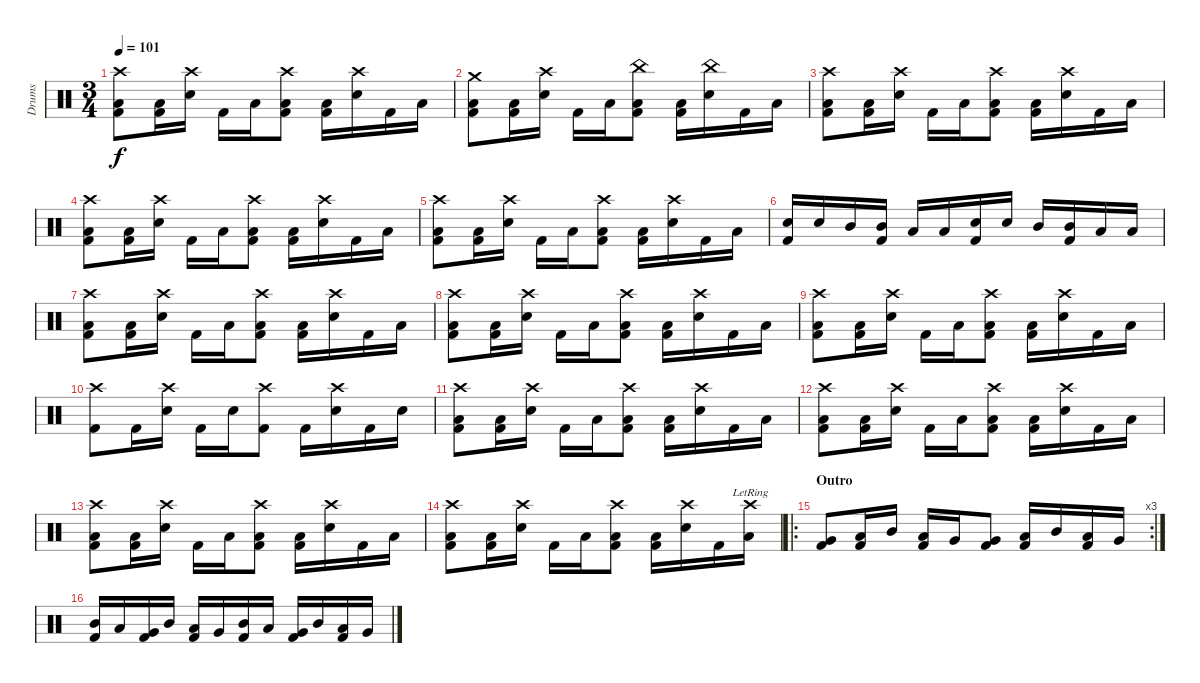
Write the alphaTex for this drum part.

\track ("Drums" "Drums") {instrument percussion}
\staff {score}
\articulation defaults
\ts (3 4)
\tempo 101
\clef neutral
\ks c
("Crash high (hit)" "Low Tom (hit)" "Kick (hit) 2").8{dy f} ("Low Tom (hit)" "Kick (hit) 2").16 ("Crash high (hit)" "Electric Snare (hit)").16 "Kick (hit) 2".16 "Low Tom (hit)".16 ("Crash high (hit)" "Low Tom (hit)" "Kick (hit) 2").8 ("Low Tom (hit)" "Kick (hit) 2").16 ("Crash high (hit)" "Electric Snare (hit)").16 "Kick (hit) 2".16 "Low Tom (hit)".16 |
("Crash medium (hit)" "Low Tom (hit)" "Kick (hit) 2").8 ("Low Tom (hit)" "Kick (hit) 2").16 ("Crash high (hit)" "Electric Snare (hit)").16 "Kick (hit) 2".16 "Low Tom (hit)".16 ("China (hit)" "Low Tom (hit)" "Kick (hit) 2").8 ("Low Tom (hit)" "Kick (hit) 2").16 ("China (hit)" "Electric Snare (hit)").16 "Kick (hit) 2".16 "Low Tom (hit)".16 |
("Crash high (hit)" "Low Tom (hit)" "Kick (hit) 2").8 ("Low Tom (hit)" "Kick (hit) 2").16 ("Crash high (hit)" "Electric Snare (hit)").16 "Kick (hit) 2".16 "Low Tom (hit)".16 ("Crash high (hit)" "Low Tom (hit)" "Kick (hit) 2").8 ("Low Tom (hit)" "Kick (hit) 2").16 ("Crash high (hit)" "Electric Snare (hit)").16 "Kick (hit) 2".16 "Low Tom (hit)".16 |
("Crash high (hit)" "Low Tom (hit)" "Kick (hit) 2").8 ("Low Tom (hit)" "Kick (hit) 2").16 ("Crash high (hit)" "Electric Snare (hit)").16 "Kick (hit) 2".16 "Low Tom (hit)".16 ("Crash high (hit)" "Low Tom (hit)" "Kick (hit) 2").8 ("Low Tom (hit)" "Kick (hit) 2").16 ("Crash high (hit)" "Electric Snare (hit)").16 "Kick (hit) 2".16 "Low Tom (hit)".16 |
("Crash high (hit)" "Low Tom (hit)" "Kick (hit) 2").8 ("Low Tom (hit)" "Kick (hit) 2").16 ("Crash high (hit)" "Electric Snare (hit)").16 "Kick (hit) 2".16 "Low Tom (hit)".16 ("Crash high (hit)" "Low Tom (hit)" "Kick (hit) 2").8 ("Low Tom (hit)" "Kick (hit) 2").16 ("Crash high (hit)" "Electric Snare (hit)").16 "Kick (hit) 2".16 "Low Tom (hit)".16 |
("Electric Snare (hit)" "Kick (hit) 2").16 "Electric Snare (hit)".16 "Mid Tom (hit)".16 ("Mid Tom (hit)" "Kick (hit) 2").16 "Low Tom (hit)".16 "Low Tom (hit)".16 ("Electric Snare (hit)" "Kick (hit) 2").16 "Electric Snare (hit)".16 "Mid Tom (hit)".16 ("Mid Tom (hit)" "Kick (hit) 2").16 "Low Tom (hit)".16 "Low Tom (hit)".16 |
("Crash high (hit)" "Low Tom (hit)" "Kick (hit) 2").8 ("Low Tom (hit)" "Kick (hit) 2").16 ("Crash high (hit)" "Electric Snare (hit)").16 "Kick (hit) 2".16 "Low Tom (hit)".16 ("Crash high (hit)" "Low Tom (hit)" "Kick (hit) 2").8 ("Low Tom (hit)" "Kick (hit) 2").16 ("Crash high (hit)" "Electric Snare (hit)").16 "Kick (hit) 2".16 "Low Tom (hit)".16 |
("Crash high (hit)" "Low Tom (hit)" "Kick (hit) 2").8 ("Low Tom (hit)" "Kick (hit) 2").16 ("Crash high (hit)" "Electric Snare (hit)").16 "Kick (hit) 2".16 "Low Tom (hit)".16 ("Crash high (hit)" "Low Tom (hit)" "Kick (hit) 2").8 ("Low Tom (hit)" "Kick (hit) 2").16 ("Crash high (hit)" "Electric Snare (hit)").16 "Kick (hit) 2".16 "Low Tom (hit)".16 |
("Crash high (hit)" "Low Tom (hit)" "Kick (hit) 2").8 ("Low Tom (hit)" "Kick (hit) 2").16 ("Crash high (hit)" "Electric Snare (hit)").16 "Kick (hit) 2".16 "Low Tom (hit)".16 ("Crash high (hit)" "Low Tom (hit)" "Kick (hit) 2").8 ("Low Tom (hit)" "Kick (hit) 2").16 ("Crash high (hit)" "Electric Snare (hit)").16 "Kick (hit) 2".16 "Low Tom (hit)".16 |
("Crash high (hit)" "Kick (hit) 2").8 "Kick (hit) 2".16 ("Crash high (hit)" "Electric Snare (hit)").16 "Kick (hit) 2".16 "Electric Snare (hit)".16 ("Crash high (hit)" "Kick (hit) 2").8 "Kick (hit) 2".16 ("Crash high (hit)" "Electric Snare (hit)").16 "Kick (hit) 2".16 "Electric Snare (hit)".16 |
("Crash high (hit)" "Low Tom (hit)" "Kick (hit) 2").8 ("Low Tom (hit)" "Kick (hit) 2").16 ("Crash high (hit)" "Electric Snare (hit)").16 "Kick (hit) 2".16 "Low Tom (hit)".16 ("Crash high (hit)" "Low Tom (hit)" "Kick (hit) 2").8 ("Low Tom (hit)" "Kick (hit) 2").16 ("Crash high (hit)" "Electric Snare (hit)").16 "Kick (hit) 2".16 "Low Tom (hit)".16 |
("Crash high (hit)" "Low Tom (hit)" "Kick (hit) 2").8 ("Low Tom (hit)" "Kick (hit) 2").16 ("Crash high (hit)" "Electric Snare (hit)").16 "Kick (hit) 2".16 "Low Tom (hit)".16 ("Crash high (hit)" "Low Tom (hit)" "Kick (hit) 2").8 ("Low Tom (hit)" "Kick (hit) 2").16 ("Crash high (hit)" "Electric Snare (hit)").16 "Kick (hit) 2".16 "Low Tom (hit)".16 |
("Crash high (hit)" "Low Tom (hit)" "Kick (hit) 2").8 ("Low Tom (hit)" "Kick (hit) 2").16 ("Crash high (hit)" "Electric Snare (hit)").16 "Kick (hit) 2".16 "Low Tom (hit)".16 ("Crash high (hit)" "Low Tom (hit)" "Kick (hit) 2").8 ("Low Tom (hit)" "Kick (hit) 2").16 ("Crash high (hit)" "Electric Snare (hit)").16 "Kick (hit) 2".16 "Low Tom (hit)".16 |
("Crash high (hit)" "Low Tom (hit)" "Kick (hit) 2").8 ("Low Tom (hit)" "Kick (hit) 2").16 ("Crash high (hit)" "Electric Snare (hit)").16 "Kick (hit) 2".16 "Low Tom (hit)".16 ("Crash high (hit)" "Low Tom (hit)" "Kick (hit) 2").8 ("Low Tom (hit)" "Kick (hit) 2").16 ("Crash high (hit)" "Electric Snare (hit)").16 "Kick (hit) 2".16 ("Crash high (hit)"{lr} "Low Tom (hit)").16 |
\ro
\rc 3
\section ("" "Outro")
("Very Low Tom (hit)" "Kick (hit) 2").8 ("Low Tom (hit)" "Kick (hit) 2").16 "Mid Tom (hit)".16 ("Low Tom (hit)" "Kick (hit) 2").16 "Very Low Tom (hit)".16 ("Very Low Tom (hit)" "Kick (hit) 2").8 ("Low Tom (hit)" "Kick (hit) 2").16 "Mid Tom (hit)".16 ("Low Tom (hit)" "Kick (hit) 2").16 "Very Low Tom (hit)".16 |
("Mid Tom (hit)" "Kick (hit) 2").16 "Low Tom (hit)".16 ("Very Low Tom (hit)" "Kick (hit) 2").16 "Mid Tom (hit)".16 ("Low Tom (hit)" "Kick (hit) 2").16 "Very Low Tom (hit)".16 ("Mid Tom (hit)" "Kick (hit) 2").16 "Low Tom (hit)".16 ("Very Low Tom (hit)" "Kick (hit) 2").16 "Mid Tom (hit)".16 ("Low Tom (hit)" "Kick (hit) 2").16 "Very Low Tom (hit)".16
